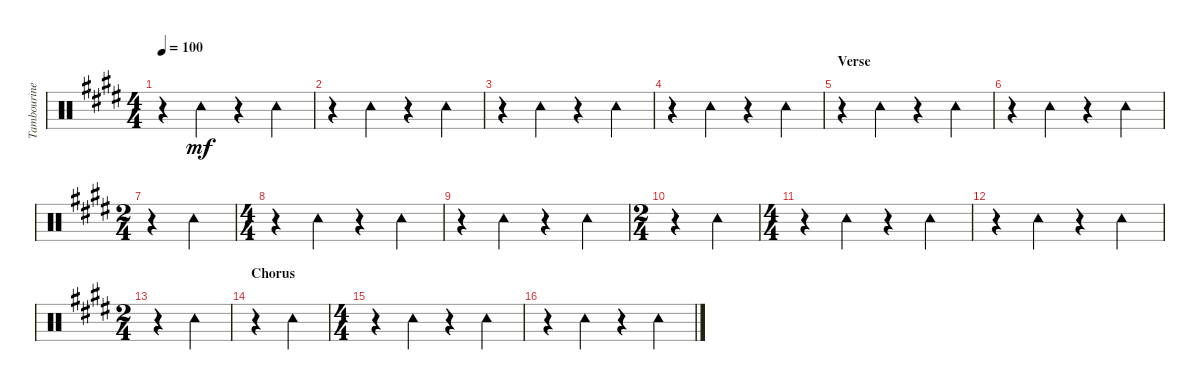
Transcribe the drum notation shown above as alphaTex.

\track ("Tambourine" "Tambourine") {instrument percussion}
\staff {score}
\articulation defaults
\ts (4 4)
\tempo 100
\clef neutral
\ks e
r.4{dy mf} "Tambourine (hit)".4 r.4 "Tambourine (hit)".4 |
r.4 "Tambourine (hit)".4 r.4 "Tambourine (hit)".4 |
r.4 "Tambourine (hit)".4 r.4 "Tambourine (hit)".4 |
r.4 "Tambourine (hit)".4 r.4 "Tambourine (hit)".4 |
\section ("" "Verse")
r.4 "Tambourine (hit)".4 r.4 "Tambourine (hit)".4 |
r.4 "Tambourine (hit)".4 r.4 "Tambourine (hit)".4 |
\ts (2 4)
r.4 "Tambourine (hit)".4 |
\ts (4 4)
r.4 "Tambourine (hit)".4 r.4 "Tambourine (hit)".4 |
r.4 "Tambourine (hit)".4 r.4 "Tambourine (hit)".4 |
\ts (2 4)
r.4 "Tambourine (hit)".4 |
\ts (4 4)
r.4 "Tambourine (hit)".4 r.4 "Tambourine (hit)".4 |
r.4 "Tambourine (hit)".4 r.4 "Tambourine (hit)".4 |
\ts (2 4)
r.4 "Tambourine (hit)".4 |
\section ("" "Chorus")
r.4 "Tambourine (hit)".4 |
\ts (4 4)
r.4 "Tambourine (hit)".4 r.4 "Tambourine (hit)".4 |
r.4 "Tambourine (hit)".4 r.4 "Tambourine (hit)".4
